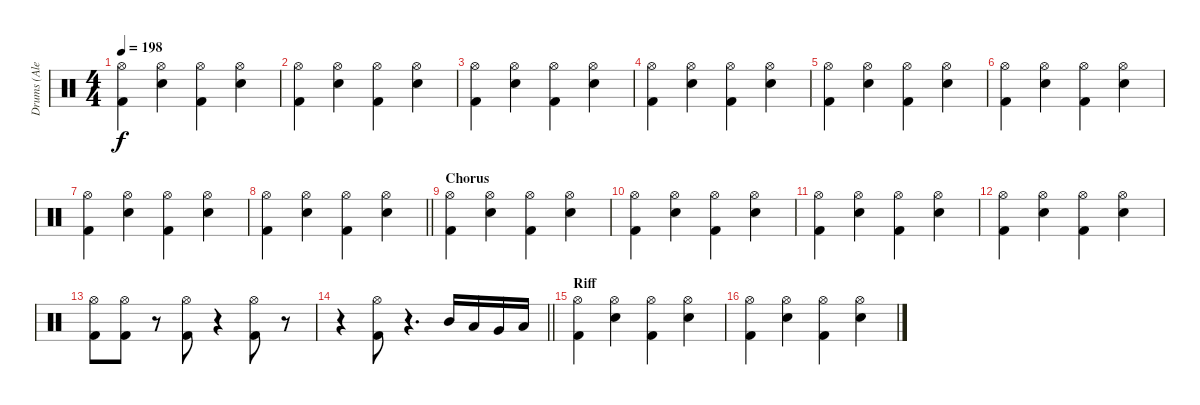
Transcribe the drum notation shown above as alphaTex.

\track ("Drums (Alex Van Halen)" "Drums (Ale") {instrument percussion}
\staff {score}
\articulation defaults
\ts (4 4)
\tempo 198
\clef neutral
\ks c
("Kick (hit) 2" "Hi-Hat (open)").4{dy f} ("Snare (hit) 2" "Hi-Hat (open)").4 ("Kick (hit) 2" "Hi-Hat (open)").4 ("Snare (hit) 2" "Hi-Hat (open)").4 |
("Kick (hit) 2" "Hi-Hat (open)").4 ("Snare (hit) 2" "Hi-Hat (open)").4 ("Kick (hit) 2" "Hi-Hat (open)").4 ("Snare (hit) 2" "Hi-Hat (open)").4 |
("Kick (hit) 2" "Hi-Hat (open)").4 ("Snare (hit) 2" "Hi-Hat (open)").4 ("Kick (hit) 2" "Hi-Hat (open)").4 ("Snare (hit) 2" "Hi-Hat (open)").4 |
("Kick (hit) 2" "Hi-Hat (open)").4 ("Snare (hit) 2" "Hi-Hat (open)").4 ("Kick (hit) 2" "Hi-Hat (open)").4 ("Snare (hit) 2" "Hi-Hat (open)").4 |
("Kick (hit) 2" "Hi-Hat (open)").4 ("Snare (hit) 2" "Hi-Hat (open)").4 ("Kick (hit) 2" "Hi-Hat (open)").4 ("Snare (hit) 2" "Hi-Hat (open)").4 |
("Kick (hit) 2" "Hi-Hat (open)").4 ("Snare (hit) 2" "Hi-Hat (open)").4 ("Kick (hit) 2" "Hi-Hat (open)").4 ("Snare (hit) 2" "Hi-Hat (open)").4 |
("Kick (hit) 2" "Hi-Hat (open)").4 ("Snare (hit) 2" "Hi-Hat (open)").4 ("Kick (hit) 2" "Hi-Hat (open)").4 ("Snare (hit) 2" "Hi-Hat (open)").4 |
\barLineRight lightlight
("Kick (hit) 2" "Hi-Hat (open)").4 ("Snare (hit) 2" "Hi-Hat (open)").4 ("Kick (hit) 2" "Hi-Hat (open)").4 ("Snare (hit) 2" "Hi-Hat (open)").4 |
\section ("" "Chorus")
("Kick (hit) 2" "Hi-Hat (open)").4 ("Snare (hit) 2" "Hi-Hat (open)").4 ("Kick (hit) 2" "Hi-Hat (open)").4 ("Snare (hit) 2" "Hi-Hat (open)").4 |
("Kick (hit) 2" "Hi-Hat (open)").4 ("Snare (hit) 2" "Hi-Hat (open)").4 ("Kick (hit) 2" "Hi-Hat (open)").4 ("Snare (hit) 2" "Hi-Hat (open)").4 |
("Kick (hit) 2" "Hi-Hat (open)").4 ("Snare (hit) 2" "Hi-Hat (open)").4 ("Kick (hit) 2" "Hi-Hat (open)").4 ("Snare (hit) 2" "Hi-Hat (open)").4 |
("Kick (hit) 2" "Hi-Hat (open)").4 ("Snare (hit) 2" "Hi-Hat (open)").4 ("Kick (hit) 2" "Hi-Hat (open)").4 ("Snare (hit) 2" "Hi-Hat (open)").4 |
("Kick (hit) 2" "Hi-Hat (open)").8 ("Kick (hit) 2" "Hi-Hat (open)").8 r.8 ("Kick (hit) 2" "Hi-Hat (open)").8 r.4 ("Kick (hit) 2" "Hi-Hat (open)").8 r.8 |
\barLineRight lightlight
r.4 ("Kick (hit) 2" "Hi-Hat (open)").8 r.4{d} "Mid Tom (hit)".16 "Low Tom (hit)".16 "Very Low Tom (hit)".16 "Low Floor Tom (hit)".16 |
\section ("" "Riff")
("Kick (hit) 2" "Hi-Hat (open)").4 ("Snare (hit) 2" "Hi-Hat (open)").4 ("Kick (hit) 2" "Hi-Hat (open)").4 ("Snare (hit) 2" "Hi-Hat (open)").4 |
("Kick (hit) 2" "Hi-Hat (open)").4 ("Snare (hit) 2" "Hi-Hat (open)").4 ("Kick (hit) 2" "Hi-Hat (open)").4 ("Snare (hit) 2" "Hi-Hat (open)").4
